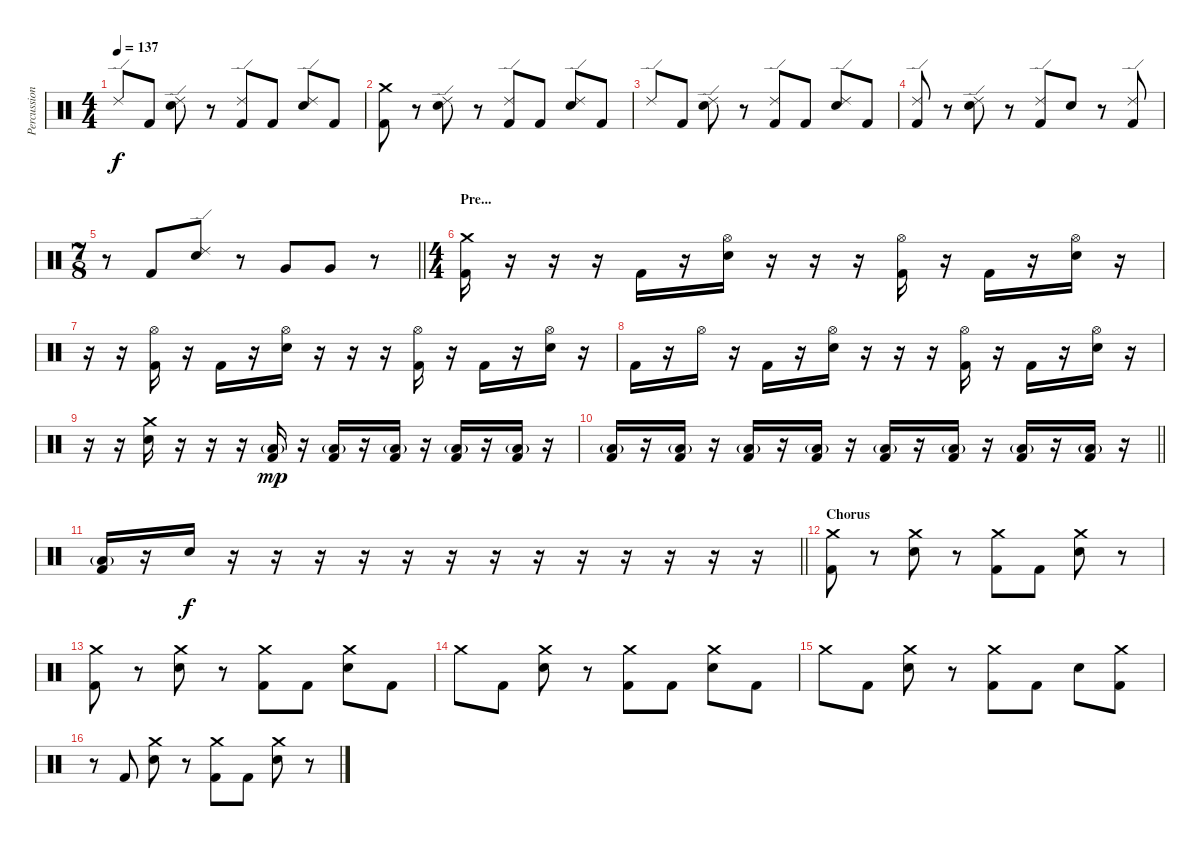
\track ("Percussion" "Percussion") {instrument percussion}
\staff {score}
\articulation defaults
\ts (4 4)
\tempo 137
\clef neutral
\ks c "Ride (edge) 2".8{dy f} "Kick (hit) 2".8
("Ride (edge) 2" "Electric Snare (hit)").8 r.8 ("Ride (edge) 2" "Kick (hit) 2").8 "Kick (hit) 2".8 ("Ride (edge) 2" "Electric Snare (hit)").8 "Kick (hit) 2".8 |
("Crash medium (hit)" "Kick (hit) 2").8 r.8 ("Ride (edge) 2" "Electric Snare (hit)").8 r.8 ("Ride (edge) 2" "Kick (hit) 2").8 "Kick (hit) 2".8 ("Ride (edge) 2" "Electric Snare (hit)").8 "Kick (hit) 2".8 |
"Ride (edge) 2".8 "Kick (hit) 2".8 ("Ride (edge) 2" "Electric Snare (hit)").8 r.8 ("Ride (edge) 2" "Kick (hit) 2").8 "Kick (hit) 2".8 ("Ride (edge) 2" "Electric Snare (hit)").8 "Kick (hit) 2".8 |
("Ride (edge) 2" "Kick (hit) 2").8 r.8 ("Ride (edge) 2" "Electric Snare (hit)").8 r.8 ("Ride (edge) 2" "Kick (hit) 2").8 "Electric Snare (hit)".8 r.8 ("Ride (edge) 2" "Kick (hit) 2").8 |
\ts (7 8)
\barLineRight lightlight
r.8 "Kick (hit) 2".8 ("Ride (edge) 2" "Electric Snare (hit)").8 r.8 "Very Low Tom (hit)".8 "Very Low Tom (hit)".8 r.8 |
\ts (4 4)
\section ("" "Pre...")
("Crash medium (hit)" "Kick (hit) 2").16 r.16 r.16 r.16 "Kick (hit) 2".16 r.16 ("Hi-Hat (open)" "Electric Snare (hit)").16 r.16 r.16 r.16 ("Hi-Hat (open)" "Kick (hit) 2").16 r.16 "Kick (hit) 2".16 r.16 ("Hi-Hat (open)" "Electric Snare (hit)").16 r.16 |
r.16 r.16 ("Hi-Hat (open)" "Kick (hit) 2").16 r.16 "Kick (hit) 2".16 r.16 ("Hi-Hat (open)" "Electric Snare (hit)").16 r.16 r.16 r.16 ("Hi-Hat (open)" "Kick (hit) 2").16 r.16 "Kick (hit) 2".16 r.16 ("Hi-Hat (open)" "Electric Snare (hit)").16 r.16 |
"Kick (hit) 2".16 r.16 "Hi-Hat (open)".16 r.16 "Kick (hit) 2".16 r.16 ("Hi-Hat (open)" "Electric Snare (hit)").16 r.16 r.16 r.16 ("Hi-Hat (open)" "Kick (hit) 2").16 r.16 "Kick (hit) 2".16 r.16 ("Hi-Hat (open)" "Electric Snare (hit)").16 r.16 |
r.16 r.16 ("Crash medium (hit)" "Electric Snare (hit)").16 r.16 r.16 r.16 ("Low Floor Tom (hit)"{g} "Kick (hit) 2").16{dy mp} r.16 ("Low Floor Tom (hit)"{g} "Kick (hit) 2").16 r.16 ("Low Floor Tom (hit)"{g} "Kick (hit) 2").16 r.16 ("Low Floor Tom (hit)"{g} "Kick (hit) 2").16 r.16 ("Low Floor Tom (hit)"{g} "Kick (hit) 2").16 r.16 |
\barLineRight lightlight
("Low Floor Tom (hit)"{g} "Kick (hit) 2").16 r.16 ("Low Floor Tom (hit)"{g} "Kick (hit) 2").16 r.16 ("Low Floor Tom (hit)"{g} "Kick (hit) 2").16 r.16 ("Low Floor Tom (hit)"{g} "Kick (hit) 2").16 r.16 ("Low Floor Tom (hit)"{g} "Kick (hit) 2").16 r.16 ("Low Floor Tom (hit)"{g} "Kick (hit) 2").16 r.16 ("Low Floor Tom (hit)"{g} "Kick (hit) 2").16 r.16 ("Low Floor Tom (hit)"{g} "Kick (hit) 2").16 r.16 |
\barLineRight lightlight
("Low Floor Tom (hit)"{g} "Kick (hit) 2").16 r.16 "Electric Snare (hit)".16{dy f} r.16 r.16 r.16 r.16 r.16 r.16 r.16 r.16 r.16 r.16 r.16 r.16 r.16 |
\section ("" "Chorus")
("Crash medium (hit)" "Kick (hit) 2").8 r.8 ("Crash medium (hit)" "Electric Snare (hit)").8 r.8 ("Crash medium (hit)" "Kick (hit) 2").8 "Kick (hit) 2".8 ("Crash medium (hit)" "Electric Snare (hit)").8 r.8 |
("Crash medium (hit)" "Kick (hit) 2").8 r.8 ("Crash medium (hit)" "Electric Snare (hit)").8 r.8 ("Crash medium (hit)" "Kick (hit) 2").8 "Kick (hit) 2".8 ("Crash medium (hit)" "Electric Snare (hit)").8 "Kick (hit) 2".8 |
"Crash medium (hit)".8 "Kick (hit) 2".8 ("Crash medium (hit)" "Electric Snare (hit)").8 r.8 ("Crash medium (hit)" "Kick (hit) 2").8 "Kick (hit) 2".8 ("Crash medium (hit)" "Electric Snare (hit)").8 "Kick (hit) 2".8 |
"Crash medium (hit)".8 "Kick (hit) 2".8 ("Crash medium (hit)" "Electric Snare (hit)").8 r.8 ("Crash medium (hit)" "Kick (hit) 2").8 "Kick (hit) 2".8 "Electric Snare (hit)".8 ("Crash medium (hit)" "Kick (hit) 2").8 |
r.8 "Kick (hit) 2".8 ("Crash medium (hit)" "Electric Snare (hit)").8 r.8 ("Crash medium (hit)" "Kick (hit) 2").8 "Kick (hit) 2".8 ("Crash medium (hit)" "Electric Snare (hit)").8 r.8
